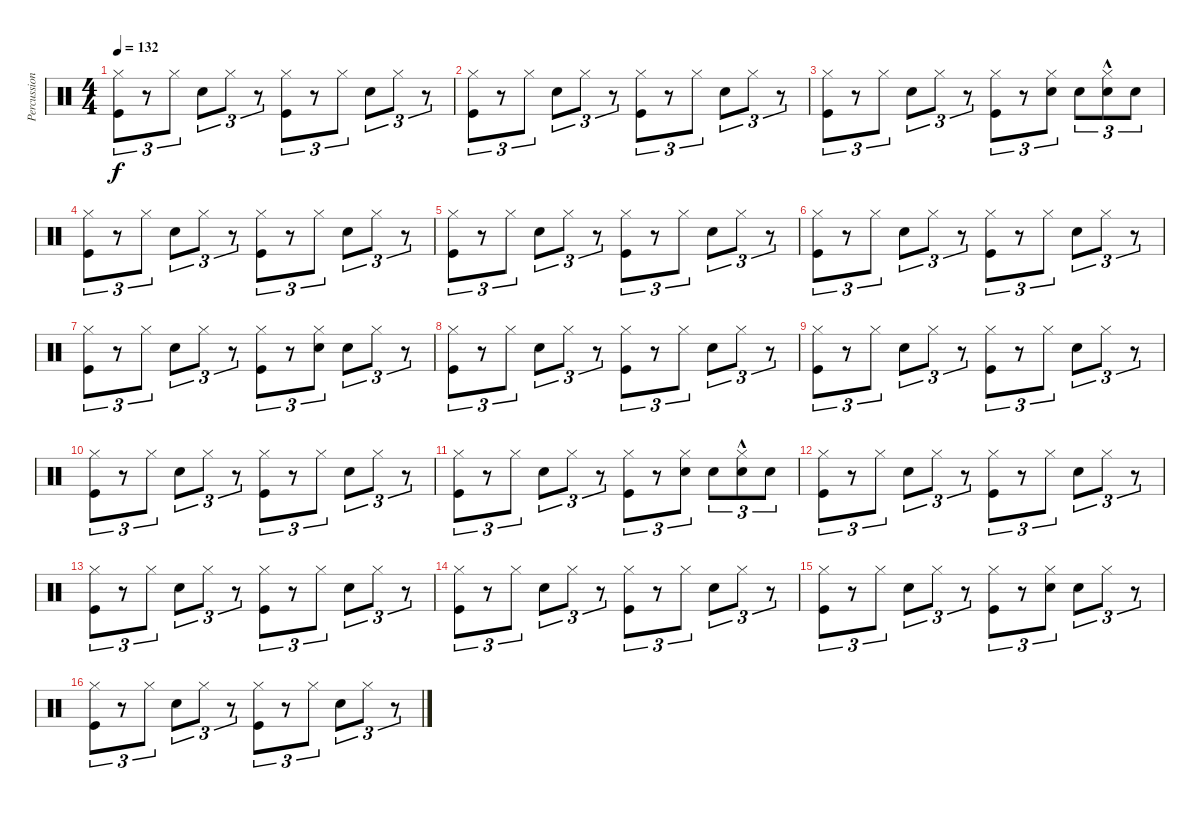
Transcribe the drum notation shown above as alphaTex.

\track ("Percussions" "Percussion") {instrument percussion}
\staff {score}
\articulation defaults
\ts (4 4)
\tempo 132
\clef neutral
\ks c
("Kick (hit)" "Hi-Hat (closed)").8{tu (3 2) dy f} r.8{tu (3 2)} "Hi-Hat (closed)".8{tu (3 2)} "Snare (hit) 2".8{tu (3 2)} "Hi-Hat (closed)".8{tu (3 2)} r.8{tu (3 2)} ("Kick (hit)" "Hi-Hat (closed)").8{tu (3 2)} r.8{tu (3 2)} "Hi-Hat (closed)".8{tu (3 2)} "Snare (hit) 2".8{tu (3 2)} "Hi-Hat (closed)".8{tu (3 2)} r.8{tu (3 2)} |
("Kick (hit)" "Hi-Hat (closed)").8{tu (3 2)} r.8{tu (3 2)} "Hi-Hat (closed)".8{tu (3 2)} "Snare (hit) 2".8{tu (3 2)} "Hi-Hat (closed)".8{tu (3 2)} r.8{tu (3 2)} ("Kick (hit)" "Hi-Hat (closed)").8{tu (3 2)} r.8{tu (3 2)} "Hi-Hat (closed)".8{tu (3 2)} "Snare (hit) 2".8{tu (3 2)} "Hi-Hat (closed)".8{tu (3 2)} r.8{tu (3 2)} |
("Kick (hit)" "Hi-Hat (closed)").8{tu (3 2)} r.8{tu (3 2)} "Hi-Hat (closed)".8{tu (3 2)} "Snare (hit) 2".8{tu (3 2)} "Hi-Hat (closed)".8{tu (3 2)} r.8{tu (3 2)} ("Kick (hit)" "Hi-Hat (closed)").8{tu (3 2)} r.8{tu (3 2)} ("Hi-Hat (closed)" "Snare (hit) 2").8{tu (3 2)} "Snare (hit) 2".8{tu (3 2)} ("Hi-Hat (closed)"{hac} "Snare (hit) 2"{hac}).8{tu (3 2)} "Snare (hit) 2".8{tu (3 2)} |
("Kick (hit)" "Hi-Hat (closed)").8{tu (3 2)} r.8{tu (3 2)} "Hi-Hat (closed)".8{tu (3 2)} "Snare (hit) 2".8{tu (3 2)} "Hi-Hat (closed)".8{tu (3 2)} r.8{tu (3 2)} ("Kick (hit)" "Hi-Hat (closed)").8{tu (3 2)} r.8{tu (3 2)} "Hi-Hat (closed)".8{tu (3 2)} "Snare (hit) 2".8{tu (3 2)} "Hi-Hat (closed)".8{tu (3 2)} r.8{tu (3 2)} |
("Kick (hit)" "Hi-Hat (closed)").8{tu (3 2)} r.8{tu (3 2)} "Hi-Hat (closed)".8{tu (3 2)} "Snare (hit) 2".8{tu (3 2)} "Hi-Hat (closed)".8{tu (3 2)} r.8{tu (3 2)} ("Kick (hit)" "Hi-Hat (closed)").8{tu (3 2)} r.8{tu (3 2)} "Hi-Hat (closed)".8{tu (3 2)} "Snare (hit) 2".8{tu (3 2)} "Hi-Hat (closed)".8{tu (3 2)} r.8{tu (3 2)} |
("Kick (hit)" "Hi-Hat (closed)").8{tu (3 2)} r.8{tu (3 2)} "Hi-Hat (closed)".8{tu (3 2)} "Snare (hit) 2".8{tu (3 2)} "Hi-Hat (closed)".8{tu (3 2)} r.8{tu (3 2)} ("Kick (hit)" "Hi-Hat (closed)").8{tu (3 2)} r.8{tu (3 2)} "Hi-Hat (closed)".8{tu (3 2)} "Snare (hit) 2".8{tu (3 2)} "Hi-Hat (closed)".8{tu (3 2)} r.8{tu (3 2)} |
("Kick (hit)" "Hi-Hat (closed)").8{tu (3 2)} r.8{tu (3 2)} "Hi-Hat (closed)".8{tu (3 2)} "Snare (hit) 2".8{tu (3 2)} "Hi-Hat (closed)".8{tu (3 2)} r.8{tu (3 2)} ("Kick (hit)" "Hi-Hat (closed)").8{tu (3 2)} r.8{tu (3 2)} ("Hi-Hat (closed)" "Snare (hit) 2").8{tu (3 2)} "Snare (hit) 2".8{tu (3 2)} "Hi-Hat (closed)".8{tu (3 2)} r.8{tu (3 2)} |
("Kick (hit)" "Hi-Hat (closed)").8{tu (3 2)} r.8{tu (3 2)} "Hi-Hat (closed)".8{tu (3 2)} "Snare (hit) 2".8{tu (3 2)} "Hi-Hat (closed)".8{tu (3 2)} r.8{tu (3 2)} ("Kick (hit)" "Hi-Hat (closed)").8{tu (3 2)} r.8{tu (3 2)} "Hi-Hat (closed)".8{tu (3 2)} "Snare (hit) 2".8{tu (3 2)} "Hi-Hat (closed)".8{tu (3 2)} r.8{tu (3 2)} |
("Kick (hit)" "Hi-Hat (closed)").8{tu (3 2)} r.8{tu (3 2)} "Hi-Hat (closed)".8{tu (3 2)} "Snare (hit) 2".8{tu (3 2)} "Hi-Hat (closed)".8{tu (3 2)} r.8{tu (3 2)} ("Kick (hit)" "Hi-Hat (closed)").8{tu (3 2)} r.8{tu (3 2)} "Hi-Hat (closed)".8{tu (3 2)} "Snare (hit) 2".8{tu (3 2)} "Hi-Hat (closed)".8{tu (3 2)} r.8{tu (3 2)} |
("Kick (hit)" "Hi-Hat (closed)").8{tu (3 2)} r.8{tu (3 2)} "Hi-Hat (closed)".8{tu (3 2)} "Snare (hit) 2".8{tu (3 2)} "Hi-Hat (closed)".8{tu (3 2)} r.8{tu (3 2)} ("Kick (hit)" "Hi-Hat (closed)").8{tu (3 2)} r.8{tu (3 2)} "Hi-Hat (closed)".8{tu (3 2)} "Snare (hit) 2".8{tu (3 2)} "Hi-Hat (closed)".8{tu (3 2)} r.8{tu (3 2)} |
("Kick (hit)" "Hi-Hat (closed)").8{tu (3 2)} r.8{tu (3 2)} "Hi-Hat (closed)".8{tu (3 2)} "Snare (hit) 2".8{tu (3 2)} "Hi-Hat (closed)".8{tu (3 2)} r.8{tu (3 2)} ("Kick (hit)" "Hi-Hat (closed)").8{tu (3 2)} r.8{tu (3 2)} ("Hi-Hat (closed)" "Snare (hit) 2").8{tu (3 2)} "Snare (hit) 2".8{tu (3 2)} ("Hi-Hat (closed)"{hac} "Snare (hit) 2"{hac}).8{tu (3 2)} "Snare (hit) 2".8{tu (3 2)} |
("Kick (hit)" "Hi-Hat (closed)").8{tu (3 2)} r.8{tu (3 2)} "Hi-Hat (closed)".8{tu (3 2)} "Snare (hit) 2".8{tu (3 2)} "Hi-Hat (closed)".8{tu (3 2)} r.8{tu (3 2)} ("Kick (hit)" "Hi-Hat (closed)").8{tu (3 2)} r.8{tu (3 2)} "Hi-Hat (closed)".8{tu (3 2)} "Snare (hit) 2".8{tu (3 2)} "Hi-Hat (closed)".8{tu (3 2)} r.8{tu (3 2)} |
("Kick (hit)" "Hi-Hat (closed)").8{tu (3 2)} r.8{tu (3 2)} "Hi-Hat (closed)".8{tu (3 2)} "Snare (hit) 2".8{tu (3 2)} "Hi-Hat (closed)".8{tu (3 2)} r.8{tu (3 2)} ("Kick (hit)" "Hi-Hat (closed)").8{tu (3 2)} r.8{tu (3 2)} "Hi-Hat (closed)".8{tu (3 2)} "Snare (hit) 2".8{tu (3 2)} "Hi-Hat (closed)".8{tu (3 2)} r.8{tu (3 2)} |
("Kick (hit)" "Hi-Hat (closed)").8{tu (3 2)} r.8{tu (3 2)} "Hi-Hat (closed)".8{tu (3 2)} "Snare (hit) 2".8{tu (3 2)} "Hi-Hat (closed)".8{tu (3 2)} r.8{tu (3 2)} ("Kick (hit)" "Hi-Hat (closed)").8{tu (3 2)} r.8{tu (3 2)} "Hi-Hat (closed)".8{tu (3 2)} "Snare (hit) 2".8{tu (3 2)} "Hi-Hat (closed)".8{tu (3 2)} r.8{tu (3 2)} |
("Kick (hit)" "Hi-Hat (closed)").8{tu (3 2)} r.8{tu (3 2)} "Hi-Hat (closed)".8{tu (3 2)} "Snare (hit) 2".8{tu (3 2)} "Hi-Hat (closed)".8{tu (3 2)} r.8{tu (3 2)} ("Kick (hit)" "Hi-Hat (closed)").8{tu (3 2)} r.8{tu (3 2)} ("Hi-Hat (closed)" "Snare (hit) 2").8{tu (3 2)} "Snare (hit) 2".8{tu (3 2)} "Hi-Hat (closed)".8{tu (3 2)} r.8{tu (3 2)} |
("Kick (hit)" "Hi-Hat (closed)").8{tu (3 2)} r.8{tu (3 2)} "Hi-Hat (closed)".8{tu (3 2)} "Snare (hit) 2".8{tu (3 2)} "Hi-Hat (closed)".8{tu (3 2)} r.8{tu (3 2)} ("Kick (hit)" "Hi-Hat (closed)").8{tu (3 2)} r.8{tu (3 2)} "Hi-Hat (closed)".8{tu (3 2)} "Snare (hit) 2".8{tu (3 2)} "Hi-Hat (closed)".8{tu (3 2)} r.8{tu (3 2)}
